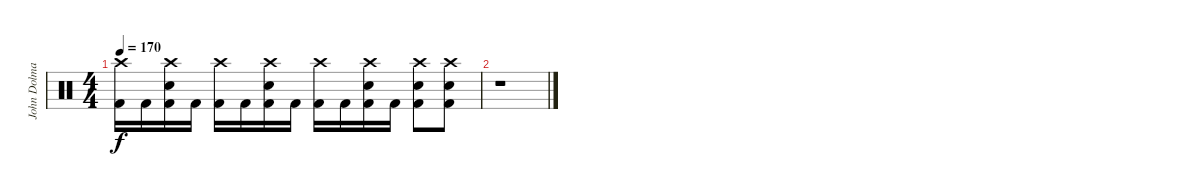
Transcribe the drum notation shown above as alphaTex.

\track ("John Dolmayan" "John Dolma") {instrument percussion}
\staff {score}
\articulation defaults
\ts (4 4)
\tempo 170
\clef neutral
\ks c
("Crash high (hit)" "Kick (hit) 2").16{dy f} "Kick (hit) 2".16 ("Crash high (hit)" "Electric Snare (hit)" "Kick (hit) 2").16 "Kick (hit) 2".16 ("Crash high (hit)" "Kick (hit) 2").16 "Kick (hit) 2".16 ("Crash high (hit)" "Electric Snare (hit)" "Kick (hit) 2").16 "Kick (hit) 2".16 ("Crash high (hit)" "Kick (hit) 2").16 "Kick (hit) 2".16 ("Crash high (hit)" "Electric Snare (hit)" "Kick (hit) 2").16 "Kick (hit) 2".16 ("Crash high (hit)" "Electric Snare (hit)" "Kick (hit) 2").8 ("Crash high (hit)" "Electric Snare (hit)" "Kick (hit) 2").8 |
r.1
